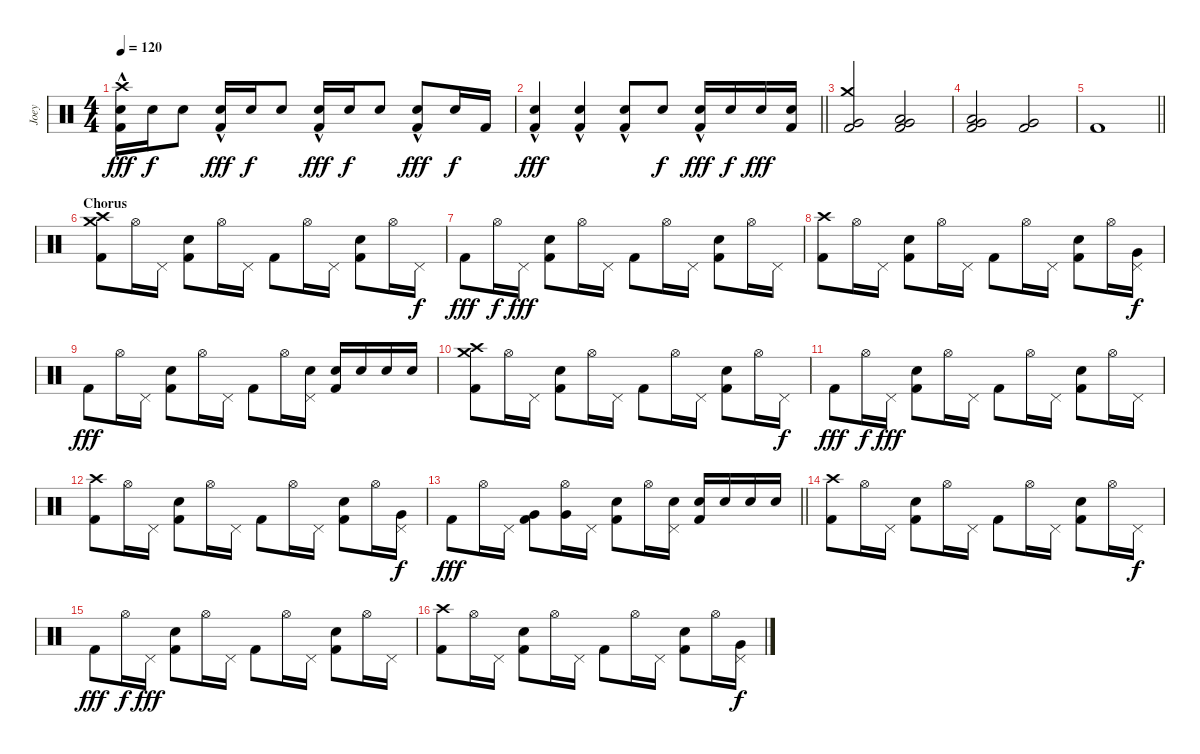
\track ("Joey" "Joey") {instrument percussion}
\staff {score}
\articulation defaults
\ts (4 4)
\tempo 120
\clef neutral
\ks c
("Crash high (hit)" "Electric Snare (hit)"{hac} "Kick (hit) 2"{hac}).16{dy fff} "Electric Snare (hit)".16{dy f} "Electric Snare (hit)".8 ("Electric Snare (hit)"{hac} "Kick (hit) 2"{hac}).16{dy fff} "Electric Snare (hit)".16{dy f} "Electric Snare (hit)".8 ("Electric Snare (hit)"{hac} "Kick (hit) 2"{hac}).16{dy fff} "Electric Snare (hit)".16{dy f} "Electric Snare (hit)".8 ("Electric Snare (hit)" "Kick (hit) 2"{hac}).8{dy fff} "Electric Snare (hit)".16{dy f} "Kick (hit) 2".16 |
\barLineRight lightlight
("Electric Snare (hit)" "Kick (hit) 2"{hac}).4{dy fff} ("Electric Snare (hit)" "Kick (hit) 2"{hac}).4 ("Electric Snare (hit)" "Kick (hit) 2"{hac}).8 "Electric Snare (hit)".8{dy f} ("Electric Snare (hit)"{hac} "Kick (hit) 2"{hac}).16{dy fff} "Electric Snare (hit)".16{dy f} "Electric Snare (hit)".16{dy fff} ("Electric Snare (hit)" "Kick (hit) 2").16 |
\section ("" "")
("Crash medium (hit)" "Very Low Tom (hit)" "Kick (hit) 2").2 ("Very Low Tom (hit)" "Low Floor Tom (hit)" "Kick (hit) 2").2 |
("Very Low Tom (hit)" "Low Floor Tom (hit)" "Kick (hit) 2").2 ("Very Low Tom (hit)" "Kick (hit) 2").2 |
\barLineRight lightlight "Kick (hit) 2".1
|
\section ("" "Chorus")
("Crash high (hit)" "Crash medium (hit)" "Kick (hit) 2").8 "Hi-Hat (open)".16 "Pedal Hi-Hat (hit)".16 ("Electric Snare (hit)" "Kick (hit) 2").8 "Hi-Hat (open)".16 "Pedal Hi-Hat (hit)".16 "Kick (hit) 2".8 "Hi-Hat (open)".16 "Pedal Hi-Hat (hit)".16 ("Electric Snare (hit)" "Kick (hit) 2").8 "Hi-Hat (open)".16 "Pedal Hi-Hat (hit)".16{dy f} |
"Kick (hit) 2".8{dy fff} "Hi-Hat (open)".16{dy f} "Pedal Hi-Hat (hit)".16{dy fff} ("Electric Snare (hit)" "Kick (hit) 2").8 "Hi-Hat (open)".16 "Pedal Hi-Hat (hit)".16 "Kick (hit) 2".8 "Hi-Hat (open)".16 "Pedal Hi-Hat (hit)".16 ("Electric Snare (hit)" "Kick (hit) 2").8 "Hi-Hat (open)".16 "Pedal Hi-Hat (hit)".16 |
("Crash high (hit)" "Kick (hit) 2").8 "Hi-Hat (open)".16 "Pedal Hi-Hat (hit)".16 ("Electric Snare (hit)" "Kick (hit) 2").8 "Hi-Hat (open)".16 "Pedal Hi-Hat (hit)".16 "Kick (hit) 2".8 "Hi-Hat (open)".16 "Pedal Hi-Hat (hit)".16 ("Electric Snare (hit)" "Kick (hit) 2").8 "Hi-Hat (open)".16 ("Pedal Hi-Hat (hit)" "Very Low Tom (hit)").16{dy f} |
"Kick (hit) 2".8{dy fff} "Hi-Hat (open)".16 "Pedal Hi-Hat (hit)".16 ("Electric Snare (hit)" "Kick (hit) 2").8 "Hi-Hat (open)".16 "Pedal Hi-Hat (hit)".16 "Kick (hit) 2".8 "Hi-Hat (open)".16 ("Pedal Hi-Hat (hit)" "Electric Snare (hit)").16 ("Electric Snare (hit)" "Kick (hit) 2").16 "Electric Snare (hit)".16 "Electric Snare (hit)".16 "Electric Snare (hit)".16 |
("Crash high (hit)" "Crash medium (hit)" "Kick (hit) 2").8 "Hi-Hat (open)".16 "Pedal Hi-Hat (hit)".16 ("Electric Snare (hit)" "Kick (hit) 2").8 "Hi-Hat (open)".16 "Pedal Hi-Hat (hit)".16 "Kick (hit) 2".8 "Hi-Hat (open)".16 "Pedal Hi-Hat (hit)".16 ("Electric Snare (hit)" "Kick (hit) 2").8 "Hi-Hat (open)".16 "Pedal Hi-Hat (hit)".16{dy f} |
"Kick (hit) 2".8{dy fff} "Hi-Hat (open)".16{dy f} "Pedal Hi-Hat (hit)".16{dy fff} ("Electric Snare (hit)" "Kick (hit) 2").8 "Hi-Hat (open)".16 "Pedal Hi-Hat (hit)".16 "Kick (hit) 2".8 "Hi-Hat (open)".16 "Pedal Hi-Hat (hit)".16 ("Electric Snare (hit)" "Kick (hit) 2").8 "Hi-Hat (open)".16 "Pedal Hi-Hat (hit)".16 |
("Crash high (hit)" "Kick (hit) 2").8 "Hi-Hat (open)".16 "Pedal Hi-Hat (hit)".16 ("Electric Snare (hit)" "Kick (hit) 2").8 "Hi-Hat (open)".16 "Pedal Hi-Hat (hit)".16 "Kick (hit) 2".8 "Hi-Hat (open)".16 "Pedal Hi-Hat (hit)".16 ("Electric Snare (hit)" "Kick (hit) 2").8 "Hi-Hat (open)".16 ("Pedal Hi-Hat (hit)" "Very Low Tom (hit)").16{dy f} |
\barLineRight lightlight "Kick (hit) 2".8{dy fff} "Hi-Hat (open)".16 "Pedal Hi-Hat (hit)".16
("Very Low Tom (hit)" "Kick (hit) 2").8 ("Hi-Hat (open)" "Very Low Tom (hit)").16 "Pedal Hi-Hat (hit)".16 ("Electric Snare (hit)" "Kick (hit) 2").8 "Hi-Hat (open)".16 ("Pedal Hi-Hat (hit)" "Electric Snare (hit)").16 ("Electric Snare (hit)" "Kick (hit) 2").16 "Electric Snare (hit)".16 "Electric Snare (hit)".16 "Electric Snare (hit)".16 |
("Crash high (hit)" "Kick (hit) 2").8 "Hi-Hat (open)".16 "Pedal Hi-Hat (hit)".16 ("Electric Snare (hit)" "Kick (hit) 2").8 "Hi-Hat (open)".16 "Pedal Hi-Hat (hit)".16 "Kick (hit) 2".8 "Hi-Hat (open)".16 "Pedal Hi-Hat (hit)".16 ("Electric Snare (hit)" "Kick (hit) 2").8 "Hi-Hat (open)".16 "Pedal Hi-Hat (hit)".16{dy f} |
"Kick (hit) 2".8{dy fff} "Hi-Hat (open)".16{dy f} "Pedal Hi-Hat (hit)".16{dy fff} ("Electric Snare (hit)" "Kick (hit) 2").8 "Hi-Hat (open)".16 "Pedal Hi-Hat (hit)".16 "Kick (hit) 2".8 "Hi-Hat (open)".16 "Pedal Hi-Hat (hit)".16 ("Electric Snare (hit)" "Kick (hit) 2").8 "Hi-Hat (open)".16 "Pedal Hi-Hat (hit)".16 |
("Crash high (hit)" "Kick (hit) 2").8 "Hi-Hat (open)".16 "Pedal Hi-Hat (hit)".16 ("Electric Snare (hit)" "Kick (hit) 2").8 "Hi-Hat (open)".16 "Pedal Hi-Hat (hit)".16 "Kick (hit) 2".8 "Hi-Hat (open)".16 "Pedal Hi-Hat (hit)".16 ("Electric Snare (hit)" "Kick (hit) 2").8 "Hi-Hat (open)".16 ("Pedal Hi-Hat (hit)" "Very Low Tom (hit)").16{dy f}
